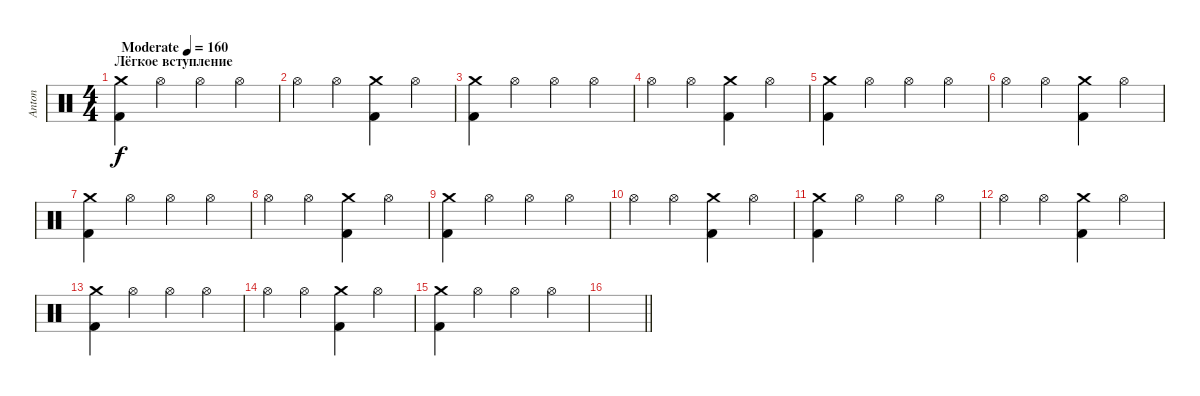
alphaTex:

\track ("Anton" "Anton") {instrument percussion}
\staff {score}
\articulation defaults
\ts (4 4)
\section ("" "Лёгкое вступление")
\tempo (160 "Moderate")
\clef neutral
\ks c
("Kick (hit) 2" "Crash medium (hit)").4{dy f} "Hi-Hat (open)".4 "Hi-Hat (open)".4 "Hi-Hat (open)".4 |
"Hi-Hat (open)".4 "Hi-Hat (open)".4 ("Kick (hit) 2" "Crash medium (hit)").4 "Hi-Hat (open)".4 |
("Kick (hit) 2" "Crash medium (hit)").4 "Hi-Hat (open)".4 "Hi-Hat (open)".4 "Hi-Hat (open)".4 |
"Hi-Hat (open)".4 "Hi-Hat (open)".4 ("Kick (hit) 2" "Crash medium (hit)").4 "Hi-Hat (open)".4 |
("Kick (hit) 2" "Crash medium (hit)").4 "Hi-Hat (open)".4 "Hi-Hat (open)".4 "Hi-Hat (open)".4 |
"Hi-Hat (open)".4 "Hi-Hat (open)".4 ("Kick (hit) 2" "Crash medium (hit)").4 "Hi-Hat (open)".4 |
("Kick (hit) 2" "Crash medium (hit)").4 "Hi-Hat (open)".4 "Hi-Hat (open)".4 "Hi-Hat (open)".4 |
"Hi-Hat (open)".4 "Hi-Hat (open)".4 ("Kick (hit) 2" "Crash medium (hit)").4 "Hi-Hat (open)".4 |
("Kick (hit) 2" "Crash medium (hit)").4 "Hi-Hat (open)".4 "Hi-Hat (open)".4 "Hi-Hat (open)".4 |
"Hi-Hat (open)".4 "Hi-Hat (open)".4 ("Kick (hit) 2" "Crash medium (hit)").4 "Hi-Hat (open)".4 |
("Kick (hit) 2" "Crash medium (hit)").4 "Hi-Hat (open)".4 "Hi-Hat (open)".4 "Hi-Hat (open)".4 |
"Hi-Hat (open)".4 "Hi-Hat (open)".4 ("Kick (hit) 2" "Crash medium (hit)").4 "Hi-Hat (open)".4 |
("Kick (hit) 2" "Crash medium (hit)").4 "Hi-Hat (open)".4 "Hi-Hat (open)".4 "Hi-Hat (open)".4 |
"Hi-Hat (open)".4 "Hi-Hat (open)".4 ("Kick (hit) 2" "Crash medium (hit)").4 "Hi-Hat (open)".4 |
("Kick (hit) 2" "Crash medium (hit)").4 "Hi-Hat (open)".4 "Hi-Hat (open)".4 "Hi-Hat (open)".4 |
\barLineRight lightlight
